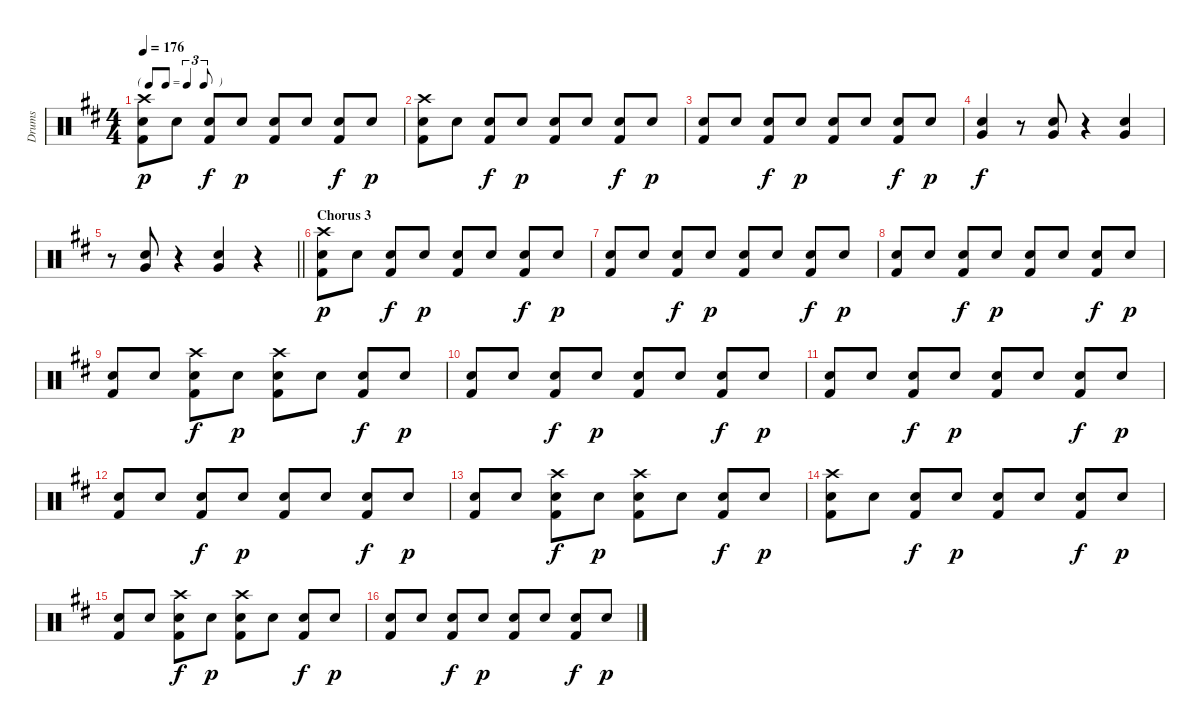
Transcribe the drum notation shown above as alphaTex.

\track ("Drums" "Drums") {instrument percussion}
\staff {score}
\articulation defaults
\ts (4 4)
\tf triplet8th
\tempo 176
\clef neutral
\ks d
("Crash high (hit)" "Snare (hit) 2" "Kick (hit) 2").8{dy p} "Snare (hit) 2".8 ("Snare (hit) 2" "Kick (hit) 2").8{dy f} "Snare (hit) 2".8{dy p} ("Snare (hit) 2" "Kick (hit) 2").8 "Snare (hit) 2".8 ("Snare (hit) 2" "Kick (hit) 2").8{dy f} "Snare (hit) 2".8{dy p} |
("Crash high (hit)" "Snare (hit) 2" "Kick (hit) 2").8 "Snare (hit) 2".8 ("Snare (hit) 2" "Kick (hit) 2").8{dy f} "Snare (hit) 2".8{dy p} ("Snare (hit) 2" "Kick (hit) 2").8 "Snare (hit) 2".8 ("Snare (hit) 2" "Kick (hit) 2").8{dy f} "Snare (hit) 2".8{dy p} |
("Snare (hit) 2" "Kick (hit) 2").8 "Snare (hit) 2".8 ("Snare (hit) 2" "Kick (hit) 2").8{dy f} "Snare (hit) 2".8{dy p} ("Snare (hit) 2" "Kick (hit) 2").8 "Snare (hit) 2".8 ("Snare (hit) 2" "Kick (hit) 2").8{dy f} "Snare (hit) 2".8{dy p} |
("Snare (hit) 2" "Very Low Tom (hit)").4{dy f} r.8 ("Snare (hit) 2" "Very Low Tom (hit)").8 r.4 ("Snare (hit) 2" "Very Low Tom (hit)").4 |
\barLineRight lightlight
r.8 ("Snare (hit) 2" "Very Low Tom (hit)").8 r.4 ("Snare (hit) 2" "Very Low Tom (hit)").4 r.4 |
\section ("" "Chorus 3")
("Crash high (hit)" "Snare (hit) 2" "Kick (hit) 2").8{dy p} "Snare (hit) 2".8 ("Snare (hit) 2" "Kick (hit) 2").8{dy f} "Snare (hit) 2".8{dy p} ("Snare (hit) 2" "Kick (hit) 2").8 "Snare (hit) 2".8 ("Snare (hit) 2" "Kick (hit) 2").8{dy f} "Snare (hit) 2".8{dy p} |
("Snare (hit) 2" "Kick (hit) 2").8 "Snare (hit) 2".8 ("Snare (hit) 2" "Kick (hit) 2").8{dy f} "Snare (hit) 2".8{dy p} ("Snare (hit) 2" "Kick (hit) 2").8 "Snare (hit) 2".8 ("Snare (hit) 2" "Kick (hit) 2").8{dy f} "Snare (hit) 2".8{dy p} |
("Snare (hit) 2" "Kick (hit) 2").8 "Snare (hit) 2".8 ("Snare (hit) 2" "Kick (hit) 2").8{dy f} "Snare (hit) 2".8{dy p} ("Snare (hit) 2" "Kick (hit) 2").8 "Snare (hit) 2".8 ("Snare (hit) 2" "Kick (hit) 2").8{dy f} "Snare (hit) 2".8{dy p} |
("Snare (hit) 2" "Kick (hit) 2").8 "Snare (hit) 2".8 ("Crash high (hit)" "Snare (hit) 2" "Kick (hit) 2").8{dy f} "Snare (hit) 2".8{dy p} ("Crash high (hit)" "Snare (hit) 2" "Kick (hit) 2").8 "Snare (hit) 2".8 ("Snare (hit) 2" "Kick (hit) 2").8{dy f} "Snare (hit) 2".8{dy p} |
("Snare (hit) 2" "Kick (hit) 2").8 "Snare (hit) 2".8 ("Snare (hit) 2" "Kick (hit) 2").8{dy f} "Snare (hit) 2".8{dy p} ("Snare (hit) 2" "Kick (hit) 2").8 "Snare (hit) 2".8 ("Snare (hit) 2" "Kick (hit) 2").8{dy f} "Snare (hit) 2".8{dy p} |
("Snare (hit) 2" "Kick (hit) 2").8 "Snare (hit) 2".8 ("Snare (hit) 2" "Kick (hit) 2").8{dy f} "Snare (hit) 2".8{dy p} ("Snare (hit) 2" "Kick (hit) 2").8 "Snare (hit) 2".8 ("Snare (hit) 2" "Kick (hit) 2").8{dy f} "Snare (hit) 2".8{dy p} |
("Snare (hit) 2" "Kick (hit) 2").8 "Snare (hit) 2".8 ("Snare (hit) 2" "Kick (hit) 2").8{dy f} "Snare (hit) 2".8{dy p} ("Snare (hit) 2" "Kick (hit) 2").8 "Snare (hit) 2".8 ("Snare (hit) 2" "Kick (hit) 2").8{dy f} "Snare (hit) 2".8{dy p} |
("Snare (hit) 2" "Kick (hit) 2").8 "Snare (hit) 2".8 ("Crash high (hit)" "Snare (hit) 2" "Kick (hit) 2").8{dy f} "Snare (hit) 2".8{dy p} ("Crash high (hit)" "Snare (hit) 2" "Kick (hit) 2").8 "Snare (hit) 2".8 ("Snare (hit) 2" "Kick (hit) 2").8{dy f} "Snare (hit) 2".8{dy p} |
("Crash high (hit)" "Snare (hit) 2" "Kick (hit) 2").8 "Snare (hit) 2".8 ("Snare (hit) 2" "Kick (hit) 2").8{dy f} "Snare (hit) 2".8{dy p} ("Snare (hit) 2" "Kick (hit) 2").8 "Snare (hit) 2".8 ("Snare (hit) 2" "Kick (hit) 2").8{dy f} "Snare (hit) 2".8{dy p} |
("Snare (hit) 2" "Kick (hit) 2").8 "Snare (hit) 2".8 ("Crash high (hit)" "Snare (hit) 2" "Kick (hit) 2").8{dy f} "Snare (hit) 2".8{dy p} ("Crash high (hit)" "Snare (hit) 2" "Kick (hit) 2").8 "Snare (hit) 2".8 ("Snare (hit) 2" "Kick (hit) 2").8{dy f} "Snare (hit) 2".8{dy p} |
("Snare (hit) 2" "Kick (hit) 2").8 "Snare (hit) 2".8 ("Snare (hit) 2" "Kick (hit) 2").8{dy f} "Snare (hit) 2".8{dy p} ("Snare (hit) 2" "Kick (hit) 2").8 "Snare (hit) 2".8 ("Snare (hit) 2" "Kick (hit) 2").8{dy f} "Snare (hit) 2".8{dy p}
